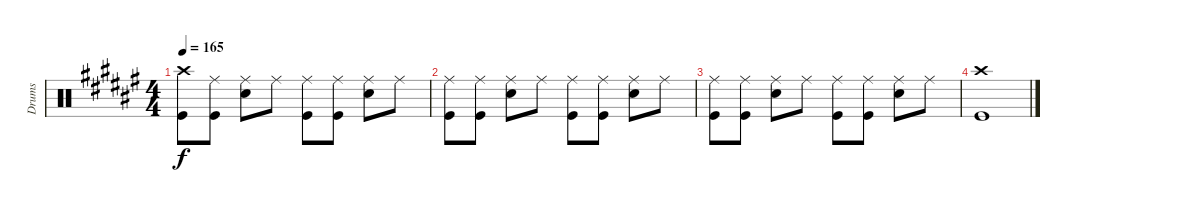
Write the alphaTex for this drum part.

\track ("Drums" "Drums") {instrument percussion}
\staff {score}
\articulation defaults
\ts (4 4)
\tempo 165
\clef neutral
\ks f#
("Crash high (hit)" "Kick (hit)").8{dy f} ("Ride (middle)" "Kick (hit)").8 ("Ride (middle)" "Snare (hit) 2").8 "Ride (middle)".8 ("Ride (middle)" "Kick (hit)").8 ("Ride (middle)" "Kick (hit)").8 ("Ride (middle)" "Snare (hit) 2").8 "Ride (middle)".8 |
("Ride (middle)" "Kick (hit)").8 ("Ride (middle)" "Kick (hit)").8 ("Ride (middle)" "Snare (hit) 2").8 "Ride (middle)".8 ("Ride (middle)" "Kick (hit)").8 ("Ride (middle)" "Kick (hit)").8 ("Ride (middle)" "Snare (hit) 2").8 "Ride (middle)".8 |
("Ride (middle)" "Kick (hit)").8 ("Ride (middle)" "Kick (hit)").8 ("Ride (middle)" "Snare (hit) 2").8 "Ride (middle)".8 ("Ride (middle)" "Kick (hit)").8 ("Ride (middle)" "Kick (hit)").8 ("Ride (middle)" "Snare (hit) 2").8 "Ride (middle)".8 |
("Crash high (hit)" "Kick (hit)").1
